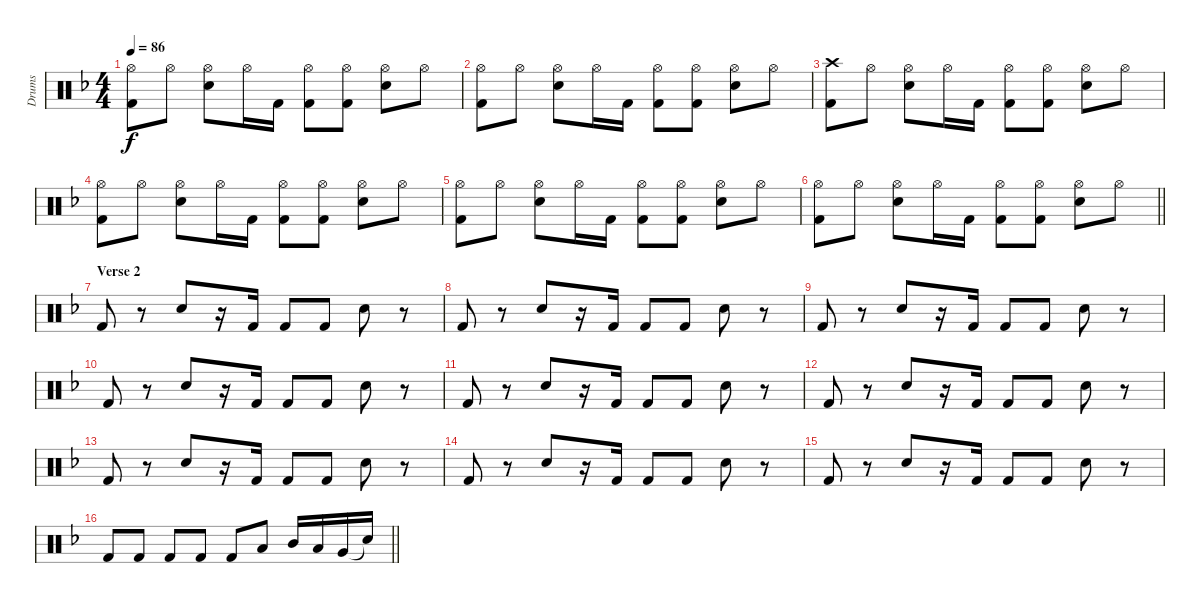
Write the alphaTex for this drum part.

\track ("Drums" "Drums") {instrument percussion}
\staff {score}
\articulation defaults
\ts (4 4)
\tempo 86
\clef neutral
\ks dminor
("Hi-Hat (open)" "Kick (hit) 2").8{dy f} "Hi-Hat (open)".8 ("Hi-Hat (open)" "Snare (hit) 2").8 "Hi-Hat (open)".16 "Kick (hit) 2".16 ("Hi-Hat (open)" "Kick (hit) 2").8 ("Hi-Hat (open)" "Kick (hit) 2").8 ("Hi-Hat (open)" "Snare (hit) 2").8 "Hi-Hat (open)".8 |
("Hi-Hat (open)" "Kick (hit) 2").8 "Hi-Hat (open)".8 ("Hi-Hat (open)" "Snare (hit) 2").8 "Hi-Hat (open)".16 "Kick (hit) 2".16 ("Hi-Hat (open)" "Kick (hit) 2").8 ("Hi-Hat (open)" "Kick (hit) 2").8 ("Hi-Hat (open)" "Snare (hit) 2").8 "Hi-Hat (open)".8 |
("Crash high (hit)" "Kick (hit) 2").8 "Hi-Hat (open)".8 ("Hi-Hat (open)" "Snare (hit) 2").8 "Hi-Hat (open)".16 "Kick (hit) 2".16 ("Hi-Hat (open)" "Kick (hit) 2").8 ("Hi-Hat (open)" "Kick (hit) 2").8 ("Hi-Hat (open)" "Snare (hit) 2").8 "Hi-Hat (open)".8 |
("Hi-Hat (open)" "Kick (hit) 2").8 "Hi-Hat (open)".8 ("Hi-Hat (open)" "Snare (hit) 2").8 "Hi-Hat (open)".16 "Kick (hit) 2".16 ("Hi-Hat (open)" "Kick (hit) 2").8 ("Hi-Hat (open)" "Kick (hit) 2").8 ("Hi-Hat (open)" "Snare (hit) 2").8 "Hi-Hat (open)".8 |
("Hi-Hat (open)" "Kick (hit) 2").8 "Hi-Hat (open)".8 ("Hi-Hat (open)" "Snare (hit) 2").8 "Hi-Hat (open)".16 "Kick (hit) 2".16 ("Hi-Hat (open)" "Kick (hit) 2").8 ("Hi-Hat (open)" "Kick (hit) 2").8 ("Hi-Hat (open)" "Snare (hit) 2").8 "Hi-Hat (open)".8 |
\barLineRight lightlight
("Hi-Hat (open)" "Kick (hit) 2").8 "Hi-Hat (open)".8 ("Hi-Hat (open)" "Snare (hit) 2").8 "Hi-Hat (open)".16 "Kick (hit) 2".16 ("Hi-Hat (open)" "Kick (hit) 2").8 ("Hi-Hat (open)" "Kick (hit) 2").8 ("Hi-Hat (open)" "Snare (hit) 2").8 "Hi-Hat (open)".8 |
\section ("" "Verse 2")
"Kick (hit) 2".8 r.8 "Snare (hit) 2".8 r.16 "Kick (hit) 2".16 "Kick (hit) 2".8 "Kick (hit) 2".8 "Snare (hit) 2".8 r.8 |
"Kick (hit) 2".8 r.8 "Snare (hit) 2".8 r.16 "Kick (hit) 2".16 "Kick (hit) 2".8 "Kick (hit) 2".8 "Snare (hit) 2".8 r.8 |
"Kick (hit) 2".8 r.8 "Snare (hit) 2".8 r.16 "Kick (hit) 2".16 "Kick (hit) 2".8 "Kick (hit) 2".8 "Snare (hit) 2".8 r.8 |
"Kick (hit) 2".8 r.8 "Snare (hit) 2".8 r.16 "Kick (hit) 2".16 "Kick (hit) 2".8 "Kick (hit) 2".8 "Snare (hit) 2".8 r.8 |
"Kick (hit) 2".8 r.8 "Snare (hit) 2".8 r.16 "Kick (hit) 2".16 "Kick (hit) 2".8 "Kick (hit) 2".8 "Snare (hit) 2".8 r.8 |
"Kick (hit) 2".8 r.8 "Snare (hit) 2".8 r.16 "Kick (hit) 2".16 "Kick (hit) 2".8 "Kick (hit) 2".8 "Snare (hit) 2".8 r.8 |
"Kick (hit) 2".8 r.8 "Snare (hit) 2".8 r.16 "Kick (hit) 2".16 "Kick (hit) 2".8 "Kick (hit) 2".8 "Snare (hit) 2".8 r.8 |
"Kick (hit) 2".8 r.8 "Snare (hit) 2".8 r.16 "Kick (hit) 2".16 "Kick (hit) 2".8 "Kick (hit) 2".8 "Snare (hit) 2".8 r.8 |
"Kick (hit) 2".8 r.8 "Snare (hit) 2".8 r.16 "Kick (hit) 2".16 "Kick (hit) 2".8 "Kick (hit) 2".8 "Snare (hit) 2".8 r.8 |
\barLineRight lightlight "Kick (hit) 2".8 "Kick (hit) 2".8 "Kick (hit) 2".8 "Kick (hit) 2".8 "Kick (hit) 2".8 "Low Tom (hit)".8 "Mid Tom (hit)".16 "Low Tom (hit)".16 "Very Low Tom (hit)".16 "Snare (hit)"{t}.16
